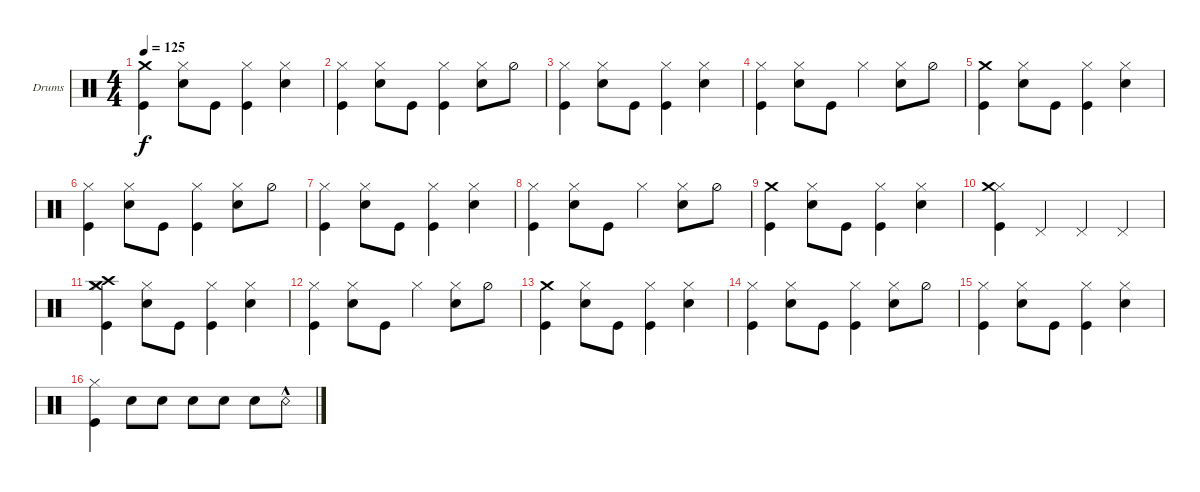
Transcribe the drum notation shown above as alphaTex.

\bracketExtendMode groupsimilarinstruments
\firstSystemTrackNameOrientation horizontal
\otherSystemsTrackNameOrientation horizontal
\track ("Drumkit" "Drums") {instrument percussion}
\staff {score}
\articulation defaults
\ts (4 4)
\tempo 125
\clef neutral
\ks c
("Kick (hit)" "Crash medium (hit)").4{dy f} ("Snare (hit) 2" "Hi-Hat (closed)").8 "Kick (hit)".8 ("Hi-Hat (closed)" "Kick (hit)").4 ("Hi-Hat (closed)" "Snare (hit) 2").4 |
("Kick (hit)" "Hi-Hat (closed)").4 ("Snare (hit) 2" "Hi-Hat (closed)").8 "Kick (hit)".8 ("Hi-Hat (closed)" "Kick (hit)").4 ("Hi-Hat (closed)" "Snare (hit) 2").8 "Hi-Hat (half)".8 |
("Kick (hit)" "Hi-Hat (closed)").4 ("Snare (hit) 2" "Hi-Hat (closed)").8 "Kick (hit)".8 ("Hi-Hat (closed)" "Kick (hit)").4 ("Hi-Hat (closed)" "Snare (hit) 2").4 |
("Kick (hit)" "Hi-Hat (closed)").4 ("Snare (hit) 2" "Hi-Hat (closed)").8 "Kick (hit)".8 "Hi-Hat (closed)".4 ("Hi-Hat (closed)" "Snare (hit) 2").8 "Hi-Hat (half)".8 |
("Kick (hit)" "Crash medium (hit)").4 ("Snare (hit) 2" "Hi-Hat (closed)").8 "Kick (hit)".8 ("Hi-Hat (closed)" "Kick (hit)").4 ("Hi-Hat (closed)" "Snare (hit) 2").4 |
("Kick (hit)" "Hi-Hat (closed)").4 ("Snare (hit) 2" "Hi-Hat (closed)").8 "Kick (hit)".8 ("Hi-Hat (closed)" "Kick (hit)").4 ("Hi-Hat (closed)" "Snare (hit) 2").8 "Hi-Hat (half)".8 |
("Kick (hit)" "Hi-Hat (closed)").4 ("Snare (hit) 2" "Hi-Hat (closed)").8 "Kick (hit)".8 ("Hi-Hat (closed)" "Kick (hit)").4 ("Hi-Hat (closed)" "Snare (hit) 2").4 |
("Kick (hit)" "Hi-Hat (closed)").4 ("Snare (hit) 2" "Hi-Hat (closed)").8 "Kick (hit)".8 "Hi-Hat (closed)".4 ("Hi-Hat (closed)" "Snare (hit) 2").8 "Hi-Hat (half)".8 |
("Kick (hit)" "Crash medium (hit)").4 ("Snare (hit) 2" "Hi-Hat (closed)").8 "Kick (hit)".8 ("Hi-Hat (closed)" "Kick (hit)").4 ("Hi-Hat (closed)" "Snare (hit) 2").4 |
("Kick (hit)" "Hi-Hat (closed)" "Crash medium (hit)").4 "Pedal Hi-Hat (hit)".4 "Pedal Hi-Hat (hit)".4 "Pedal Hi-Hat (hit)".4 |
("Kick (hit)" "Hi-Hat (closed)" "Crash medium (hit)" "Crash high (hit)").4 ("Snare (hit) 2" "Hi-Hat (closed)").8 "Kick (hit)".8 ("Hi-Hat (closed)" "Kick (hit)").4 ("Hi-Hat (closed)" "Snare (hit) 2").4 |
("Kick (hit)" "Hi-Hat (closed)").4 ("Snare (hit) 2" "Hi-Hat (closed)").8 "Kick (hit)".8 "Hi-Hat (closed)".4 ("Hi-Hat (closed)" "Snare (hit) 2").8 "Hi-Hat (half)".8 |
("Kick (hit)" "Crash medium (hit)").4 ("Snare (hit) 2" "Hi-Hat (closed)").8 "Kick (hit)".8 ("Hi-Hat (closed)" "Kick (hit)").4 ("Hi-Hat (closed)" "Snare (hit) 2").4 |
("Kick (hit)" "Hi-Hat (closed)").4 ("Snare (hit) 2" "Hi-Hat (closed)").8 "Kick (hit)".8 ("Hi-Hat (closed)" "Kick (hit)").4 ("Hi-Hat (closed)" "Snare (hit) 2").8 "Hi-Hat (half)".8 |
("Kick (hit)" "Hi-Hat (closed)").4 ("Snare (hit) 2" "Hi-Hat (closed)").8 "Kick (hit)".8 ("Hi-Hat (closed)" "Kick (hit)").4 ("Hi-Hat (closed)" "Snare (hit) 2").4 |
("Kick (hit)" "Hi-Hat (closed)").4 "Snare (hit) 2".8 "Snare (hit) 2".8 "Snare (hit) 2".8 "Snare (hit) 2".8 "Snare (hit) 2".8 "Snare (rim shot)"{hac}.8
